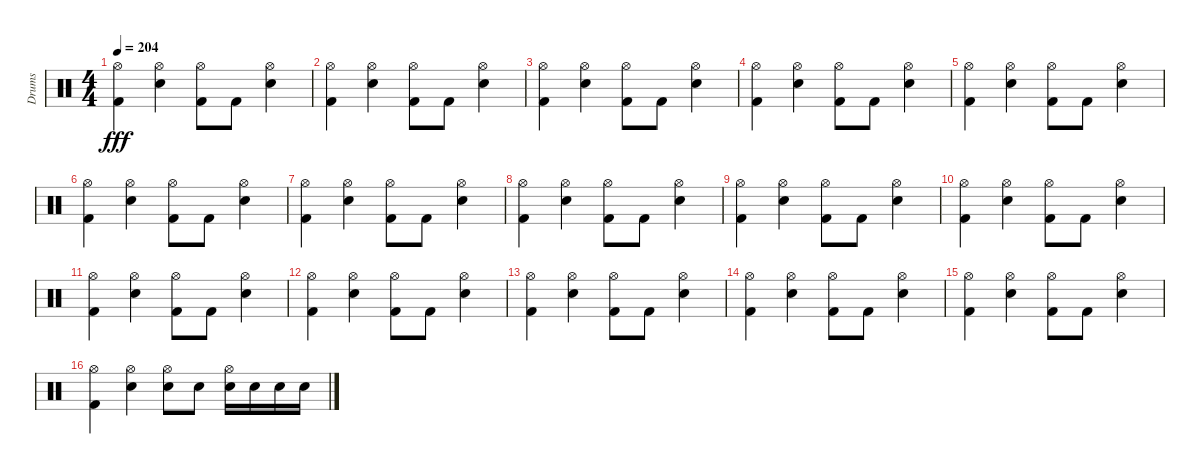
\track ("Drums" "Drums") {instrument percussion}
\staff {score}
\articulation defaults
\ts (4 4)
\tempo 204
\clef neutral
\ks c
("Hi-Hat (open)" "Kick (hit) 2").4{dy fff} ("Hi-Hat (open)" "Snare (hit) 2").4 ("Hi-Hat (open)" "Kick (hit) 2").8 "Kick (hit) 2".8 ("Hi-Hat (open)" "Snare (hit) 2").4 |
("Hi-Hat (open)" "Kick (hit) 2").4 ("Hi-Hat (open)" "Snare (hit) 2").4 ("Hi-Hat (open)" "Kick (hit) 2").8 "Kick (hit) 2".8 ("Hi-Hat (open)" "Snare (hit) 2").4 |
("Hi-Hat (open)" "Kick (hit) 2").4 ("Hi-Hat (open)" "Snare (hit) 2").4 ("Hi-Hat (open)" "Kick (hit) 2").8 "Kick (hit) 2".8 ("Hi-Hat (open)" "Snare (hit) 2").4 |
("Hi-Hat (open)" "Kick (hit) 2").4 ("Hi-Hat (open)" "Snare (hit) 2").4 ("Hi-Hat (open)" "Kick (hit) 2").8 "Kick (hit) 2".8 ("Hi-Hat (open)" "Snare (hit) 2").4 |
("Hi-Hat (open)" "Kick (hit) 2").4 ("Hi-Hat (open)" "Snare (hit) 2").4 ("Hi-Hat (open)" "Kick (hit) 2").8 "Kick (hit) 2".8 ("Hi-Hat (open)" "Snare (hit) 2").4 |
("Hi-Hat (open)" "Kick (hit) 2").4 ("Hi-Hat (open)" "Snare (hit) 2").4 ("Hi-Hat (open)" "Kick (hit) 2").8 "Kick (hit) 2".8 ("Hi-Hat (open)" "Snare (hit) 2").4 |
("Hi-Hat (open)" "Kick (hit) 2").4 ("Hi-Hat (open)" "Snare (hit) 2").4 ("Hi-Hat (open)" "Kick (hit) 2").8 "Kick (hit) 2".8 ("Hi-Hat (open)" "Snare (hit) 2").4 |
("Hi-Hat (open)" "Kick (hit) 2").4 ("Hi-Hat (open)" "Snare (hit) 2").4 ("Hi-Hat (open)" "Kick (hit) 2").8 "Kick (hit) 2".8 ("Hi-Hat (open)" "Snare (hit) 2").4 |
("Hi-Hat (open)" "Kick (hit) 2").4 ("Hi-Hat (open)" "Snare (hit) 2").4 ("Hi-Hat (open)" "Kick (hit) 2").8 "Kick (hit) 2".8 ("Hi-Hat (open)" "Snare (hit) 2").4 |
("Hi-Hat (open)" "Kick (hit) 2").4 ("Hi-Hat (open)" "Snare (hit) 2").4 ("Hi-Hat (open)" "Kick (hit) 2").8 "Kick (hit) 2".8 ("Hi-Hat (open)" "Snare (hit) 2").4 |
("Hi-Hat (open)" "Kick (hit) 2").4 ("Hi-Hat (open)" "Snare (hit) 2").4 ("Hi-Hat (open)" "Kick (hit) 2").8 "Kick (hit) 2".8 ("Hi-Hat (open)" "Snare (hit) 2").4 |
("Hi-Hat (open)" "Kick (hit) 2").4 ("Hi-Hat (open)" "Snare (hit) 2").4 ("Hi-Hat (open)" "Kick (hit) 2").8 "Kick (hit) 2".8 ("Hi-Hat (open)" "Snare (hit) 2").4 |
("Hi-Hat (open)" "Kick (hit) 2").4 ("Hi-Hat (open)" "Snare (hit) 2").4 ("Hi-Hat (open)" "Kick (hit) 2").8 "Kick (hit) 2".8 ("Hi-Hat (open)" "Snare (hit) 2").4 |
("Hi-Hat (open)" "Kick (hit) 2").4 ("Hi-Hat (open)" "Snare (hit) 2").4 ("Hi-Hat (open)" "Kick (hit) 2").8 "Kick (hit) 2".8 ("Hi-Hat (open)" "Snare (hit) 2").4 |
("Hi-Hat (open)" "Kick (hit) 2").4 ("Hi-Hat (open)" "Snare (hit) 2").4 ("Hi-Hat (open)" "Kick (hit) 2").8 "Kick (hit) 2".8 ("Hi-Hat (open)" "Snare (hit) 2").4 |
("Hi-Hat (open)" "Kick (hit) 2").4 ("Hi-Hat (open)" "Snare (hit) 2").4 ("Hi-Hat (open)" "Snare (hit) 2").8 "Snare (hit) 2".8 ("Hi-Hat (open)" "Snare (hit) 2").16 "Snare (hit) 2".16 "Snare (hit) 2".16 "Snare (hit) 2".16
